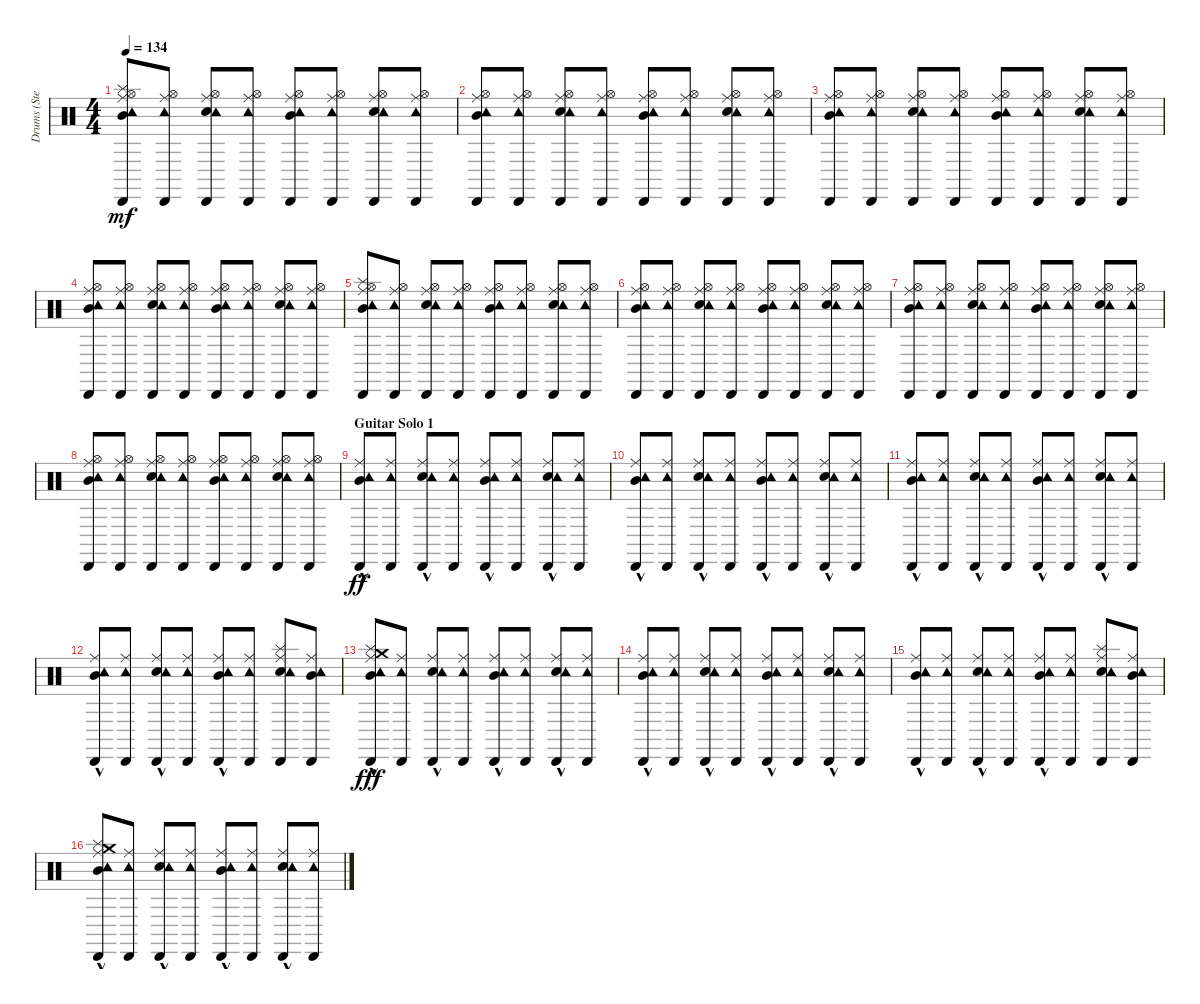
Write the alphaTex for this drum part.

\track ("Drums (Steven)" "Drums (Ste") {instrument percussion}
\staff {score}
\articulation defaults
\ts (4 4)
\tempo 134
\clef neutral
\ks c
("Hi-Hat (open)" "Mid Tom (hit)" "Splash (hit)" "Ride (middle)" "Tambourine (hit)" "Cabasa (hit)").8{dy mf} ("Hi-Hat (open)" "Ride (middle)" "Tambourine (hit)" "Cabasa (hit)").8 ("Electric Snare (hit)" "Hi-Hat (open)" "Ride (middle)" "Tambourine (hit)" "Cabasa (hit)").8 ("Hi-Hat (open)" "Ride (middle)" "Tambourine (hit)" "Cabasa (hit)").8 ("Hi-Hat (open)" "Mid Tom (hit)" "Ride (middle)" "Tambourine (hit)" "Cabasa (hit)").8 ("Hi-Hat (open)" "Ride (middle)" "Tambourine (hit)" "Cabasa (hit)").8 ("Electric Snare (hit)" "Hi-Hat (open)" "Ride (middle)" "Tambourine (hit)" "Cabasa (hit)").8 ("Hi-Hat (open)" "Ride (middle)" "Tambourine (hit)" "Cabasa (hit)").8 |
("Hi-Hat (open)" "Mid Tom (hit)" "Ride (middle)" "Tambourine (hit)" "Cabasa (hit)").8 ("Hi-Hat (open)" "Ride (middle)" "Tambourine (hit)" "Cabasa (hit)").8 ("Electric Snare (hit)" "Hi-Hat (open)" "Ride (middle)" "Tambourine (hit)" "Cabasa (hit)").8 ("Hi-Hat (open)" "Ride (middle)" "Tambourine (hit)" "Cabasa (hit)").8 ("Hi-Hat (open)" "Mid Tom (hit)" "Ride (middle)" "Tambourine (hit)" "Cabasa (hit)").8 ("Hi-Hat (open)" "Ride (middle)" "Tambourine (hit)" "Cabasa (hit)").8 ("Electric Snare (hit)" "Hi-Hat (open)" "Ride (middle)" "Tambourine (hit)" "Cabasa (hit)").8 ("Hi-Hat (open)" "Ride (middle)" "Tambourine (hit)" "Cabasa (hit)").8 |
("Hi-Hat (open)" "Mid Tom (hit)" "Ride (middle)" "Tambourine (hit)" "Cabasa (hit)").8 ("Hi-Hat (open)" "Ride (middle)" "Tambourine (hit)" "Cabasa (hit)").8 ("Electric Snare (hit)" "Hi-Hat (open)" "Ride (middle)" "Tambourine (hit)" "Cabasa (hit)").8 ("Hi-Hat (open)" "Ride (middle)" "Tambourine (hit)" "Cabasa (hit)").8 ("Hi-Hat (open)" "Mid Tom (hit)" "Ride (middle)" "Tambourine (hit)" "Cabasa (hit)").8 ("Hi-Hat (open)" "Ride (middle)" "Tambourine (hit)" "Cabasa (hit)").8 ("Electric Snare (hit)" "Hi-Hat (open)" "Ride (middle)" "Tambourine (hit)" "Cabasa (hit)").8 ("Hi-Hat (open)" "Ride (middle)" "Tambourine (hit)" "Cabasa (hit)").8 |
("Hi-Hat (open)" "Mid Tom (hit)" "Ride (middle)" "Tambourine (hit)" "Cabasa (hit)").8 ("Hi-Hat (open)" "Ride (middle)" "Tambourine (hit)" "Cabasa (hit)").8 ("Electric Snare (hit)" "Hi-Hat (open)" "Ride (middle)" "Tambourine (hit)" "Cabasa (hit)").8 ("Hi-Hat (open)" "Ride (middle)" "Tambourine (hit)" "Cabasa (hit)").8 ("Hi-Hat (open)" "Mid Tom (hit)" "Ride (middle)" "Tambourine (hit)" "Cabasa (hit)").8 ("Hi-Hat (open)" "Ride (middle)" "Tambourine (hit)" "Cabasa (hit)").8 ("Electric Snare (hit)" "Hi-Hat (open)" "Ride (middle)" "Tambourine (hit)" "Cabasa (hit)").8 ("Hi-Hat (open)" "Ride (middle)" "Tambourine (hit)" "Cabasa (hit)").8 |
("Hi-Hat (open)" "Mid Tom (hit)" "Splash (hit)" "Ride (middle)" "Tambourine (hit)" "Cabasa (hit)").8 ("Hi-Hat (open)" "Ride (middle)" "Tambourine (hit)" "Cabasa (hit)").8 ("Electric Snare (hit)" "Hi-Hat (open)" "Ride (middle)" "Tambourine (hit)" "Cabasa (hit)").8 ("Hi-Hat (open)" "Ride (middle)" "Tambourine (hit)" "Cabasa (hit)").8 ("Hi-Hat (open)" "Mid Tom (hit)" "Ride (middle)" "Tambourine (hit)" "Cabasa (hit)").8 ("Hi-Hat (open)" "Ride (middle)" "Tambourine (hit)" "Cabasa (hit)").8 ("Electric Snare (hit)" "Hi-Hat (open)" "Ride (middle)" "Tambourine (hit)" "Cabasa (hit)").8 ("Hi-Hat (open)" "Ride (middle)" "Tambourine (hit)" "Cabasa (hit)").8 |
("Hi-Hat (open)" "Mid Tom (hit)" "Ride (middle)" "Tambourine (hit)" "Cabasa (hit)").8 ("Hi-Hat (open)" "Ride (middle)" "Tambourine (hit)" "Cabasa (hit)").8 ("Electric Snare (hit)" "Hi-Hat (open)" "Ride (middle)" "Tambourine (hit)" "Cabasa (hit)").8 ("Hi-Hat (open)" "Ride (middle)" "Tambourine (hit)" "Cabasa (hit)").8 ("Hi-Hat (open)" "Mid Tom (hit)" "Ride (middle)" "Tambourine (hit)" "Cabasa (hit)").8 ("Hi-Hat (open)" "Ride (middle)" "Tambourine (hit)" "Cabasa (hit)").8 ("Electric Snare (hit)" "Hi-Hat (open)" "Ride (middle)" "Tambourine (hit)" "Cabasa (hit)").8 ("Hi-Hat (open)" "Ride (middle)" "Tambourine (hit)" "Cabasa (hit)").8 |
("Hi-Hat (open)" "Mid Tom (hit)" "Ride (middle)" "Tambourine (hit)" "Cabasa (hit)").8 ("Hi-Hat (open)" "Ride (middle)" "Tambourine (hit)" "Cabasa (hit)").8 ("Electric Snare (hit)" "Hi-Hat (open)" "Ride (middle)" "Tambourine (hit)" "Cabasa (hit)").8 ("Hi-Hat (open)" "Ride (middle)" "Tambourine (hit)" "Cabasa (hit)").8 ("Hi-Hat (open)" "Mid Tom (hit)" "Ride (middle)" "Tambourine (hit)" "Cabasa (hit)").8 ("Hi-Hat (open)" "Ride (middle)" "Tambourine (hit)" "Cabasa (hit)").8 ("Electric Snare (hit)" "Hi-Hat (open)" "Ride (middle)" "Tambourine (hit)" "Cabasa (hit)").8 ("Hi-Hat (open)" "Ride (middle)" "Tambourine (hit)" "Cabasa (hit)").8 |
("Hi-Hat (open)" "Mid Tom (hit)" "Ride (middle)" "Tambourine (hit)" "Cabasa (hit)").8 ("Hi-Hat (open)" "Ride (middle)" "Tambourine (hit)" "Cabasa (hit)").8 ("Electric Snare (hit)" "Hi-Hat (open)" "Ride (middle)" "Tambourine (hit)" "Cabasa (hit)").8 ("Hi-Hat (open)" "Ride (middle)" "Tambourine (hit)" "Cabasa (hit)").8 ("Hi-Hat (open)" "Mid Tom (hit)" "Ride (middle)" "Tambourine (hit)" "Cabasa (hit)").8 ("Hi-Hat (open)" "Ride (middle)" "Tambourine (hit)" "Cabasa (hit)").8 ("Electric Snare (hit)" "Hi-Hat (open)" "Ride (middle)" "Tambourine (hit)" "Cabasa (hit)").8 ("Hi-Hat (open)" "Ride (middle)" "Tambourine (hit)" "Cabasa (hit)").8 |
\section ("" "Guitar Solo 1")
("Mid Tom (hit)"{hac} "Ride (middle)" "Tambourine (hit)" "Cabasa (hit)").8{dy ff} ("Ride (middle)" "Tambourine (hit)" "Cabasa (hit)").8 ("Electric Snare (hit)"{hac} "Ride (middle)" "Tambourine (hit)" "Cabasa (hit)").8 ("Ride (middle)" "Tambourine (hit)" "Cabasa (hit)").8 ("Mid Tom (hit)"{hac} "Ride (middle)" "Tambourine (hit)" "Cabasa (hit)").8 ("Ride (middle)" "Tambourine (hit)" "Cabasa (hit)").8 ("Electric Snare (hit)"{hac} "Ride (middle)" "Tambourine (hit)" "Cabasa (hit)").8 ("Ride (middle)" "Tambourine (hit)" "Cabasa (hit)").8 |
("Mid Tom (hit)"{hac} "Ride (middle)" "Tambourine (hit)" "Cabasa (hit)").8 ("Ride (middle)" "Tambourine (hit)" "Cabasa (hit)").8 ("Electric Snare (hit)"{hac} "Ride (middle)" "Tambourine (hit)" "Cabasa (hit)").8 ("Ride (middle)" "Tambourine (hit)" "Cabasa (hit)").8 ("Mid Tom (hit)"{hac} "Ride (middle)" "Tambourine (hit)" "Cabasa (hit)").8 ("Ride (middle)" "Tambourine (hit)" "Cabasa (hit)").8 ("Electric Snare (hit)"{hac} "Ride (middle)" "Tambourine (hit)" "Cabasa (hit)").8 ("Ride (middle)" "Tambourine (hit)" "Cabasa (hit)").8 |
("Mid Tom (hit)"{hac} "Ride (middle)" "Tambourine (hit)" "Cabasa (hit)").8 ("Ride (middle)" "Tambourine (hit)" "Cabasa (hit)").8 ("Electric Snare (hit)"{hac} "Ride (middle)" "Tambourine (hit)" "Cabasa (hit)").8 ("Ride (middle)" "Tambourine (hit)" "Cabasa (hit)").8 ("Mid Tom (hit)"{hac} "Ride (middle)" "Tambourine (hit)" "Cabasa (hit)").8 ("Ride (middle)" "Tambourine (hit)" "Cabasa (hit)").8 ("Electric Snare (hit)"{hac} "Ride (middle)" "Tambourine (hit)" "Cabasa (hit)").8 ("Ride (middle)" "Tambourine (hit)" "Cabasa (hit)").8 |
("Mid Tom (hit)"{hac} "Ride (middle)" "Tambourine (hit)" "Cabasa (hit)").8 ("Ride (middle)" "Tambourine (hit)" "Cabasa (hit)").8 ("Electric Snare (hit)"{hac} "Ride (middle)" "Tambourine (hit)" "Cabasa (hit)").8 ("Ride (middle)" "Tambourine (hit)" "Cabasa (hit)").8 ("Mid Tom (hit)"{hac} "Ride (middle)" "Tambourine (hit)" "Cabasa (hit)").8 ("Ride (middle)" "Tambourine (hit)" "Cabasa (hit)").8 ("Electric Snare (hit)" "Splash (hit)" "Ride (middle)" "Tambourine (hit)" "Cabasa (hit)").8 ("Mid Tom (hit)" "Ride (middle)" "Tambourine (hit)" "Cabasa (hit)").8 |
("Mid Tom (hit)"{hac} "Splash (hit)"{hac} "Crash medium (hit)"{hac} "Ride (middle)" "Tambourine (hit)" "Cabasa (hit)").8{dy fff} ("Ride (middle)" "Tambourine (hit)" "Cabasa (hit)").8 ("Electric Snare (hit)"{hac} "Ride (middle)" "Tambourine (hit)" "Cabasa (hit)").8 ("Ride (middle)" "Tambourine (hit)" "Cabasa (hit)").8 ("Mid Tom (hit)"{hac} "Ride (middle)" "Tambourine (hit)" "Cabasa (hit)").8 ("Ride (middle)" "Tambourine (hit)" "Cabasa (hit)").8 ("Electric Snare (hit)"{hac} "Ride (middle)" "Tambourine (hit)" "Cabasa (hit)").8 ("Ride (middle)" "Tambourine (hit)" "Cabasa (hit)").8 |
("Mid Tom (hit)"{hac} "Ride (middle)" "Tambourine (hit)" "Cabasa (hit)").8 ("Ride (middle)" "Tambourine (hit)" "Cabasa (hit)").8 ("Electric Snare (hit)"{hac} "Ride (middle)" "Tambourine (hit)" "Cabasa (hit)").8 ("Ride (middle)" "Tambourine (hit)" "Cabasa (hit)").8 ("Mid Tom (hit)"{hac} "Ride (middle)" "Tambourine (hit)" "Cabasa (hit)").8 ("Ride (middle)" "Tambourine (hit)" "Cabasa (hit)").8 ("Electric Snare (hit)"{hac} "Ride (middle)" "Tambourine (hit)" "Cabasa (hit)").8 ("Ride (middle)" "Tambourine (hit)" "Cabasa (hit)").8 |
("Mid Tom (hit)"{hac} "Ride (middle)" "Tambourine (hit)" "Cabasa (hit)").8 ("Ride (middle)" "Tambourine (hit)" "Cabasa (hit)").8 ("Electric Snare (hit)"{hac} "Ride (middle)" "Tambourine (hit)" "Cabasa (hit)").8 ("Ride (middle)" "Tambourine (hit)" "Cabasa (hit)").8 ("Mid Tom (hit)"{hac} "Ride (middle)" "Tambourine (hit)" "Cabasa (hit)").8 ("Ride (middle)" "Tambourine (hit)" "Cabasa (hit)").8 ("Electric Snare (hit)" "Splash (hit)" "Ride (middle)" "Tambourine (hit)" "Cabasa (hit)").8 ("Mid Tom (hit)" "Ride (middle)" "Tambourine (hit)" "Cabasa (hit)").8 |
("Mid Tom (hit)"{hac} "Splash (hit)"{hac} "Crash medium (hit)"{hac} "Ride (middle)" "Tambourine (hit)" "Cabasa (hit)").8 ("Ride (middle)" "Tambourine (hit)" "Cabasa (hit)").8 ("Electric Snare (hit)"{hac} "Ride (middle)" "Tambourine (hit)" "Cabasa (hit)").8 ("Ride (middle)" "Tambourine (hit)" "Cabasa (hit)").8 ("Mid Tom (hit)"{hac} "Ride (middle)" "Tambourine (hit)" "Cabasa (hit)").8 ("Ride (middle)" "Tambourine (hit)" "Cabasa (hit)").8 ("Electric Snare (hit)"{hac} "Ride (middle)" "Tambourine (hit)" "Cabasa (hit)").8 ("Ride (middle)" "Tambourine (hit)" "Cabasa (hit)").8
